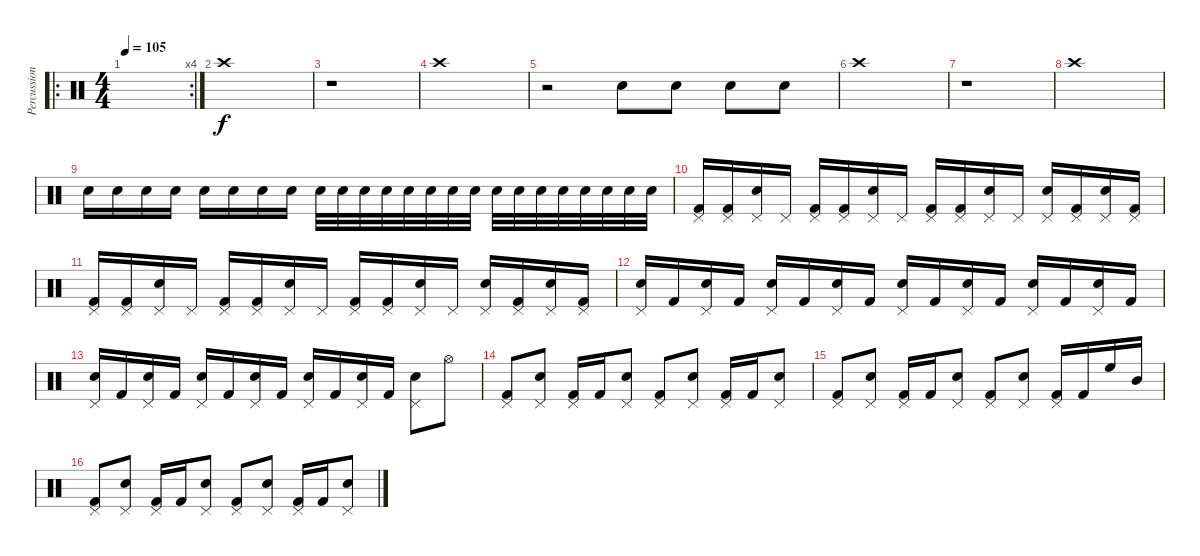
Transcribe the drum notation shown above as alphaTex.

\track ("Percussion" "Percussion") {instrument percussion}
\staff {score}
\articulation defaults
\ro
\rc 4
\ts (4 4)
\tempo 105
\clef neutral
\ks c
|
"Crash high (hit)".1 |
r.1 |
"Crash high (hit)".1 |
r.2 "Electric Snare (hit)".8 "Electric Snare (hit)".8 "Electric Snare (hit)".8 "Electric Snare (hit)".8 |
"Crash high (hit)".1 |
r.1 |
"Crash high (hit)".1 |
"Electric Snare (hit)".16 "Electric Snare (hit)".16 "Electric Snare (hit)".16 "Electric Snare (hit)".16 "Electric Snare (hit)".16 "Electric Snare (hit)".16 "Electric Snare (hit)".16 "Electric Snare (hit)".16 "Electric Snare (hit)".32 "Electric Snare (hit)".32 "Electric Snare (hit)".32 "Electric Snare (hit)".32 "Electric Snare (hit)".32 "Electric Snare (hit)".32 "Electric Snare (hit)".32 "Electric Snare (hit)".32 "Electric Snare (hit)".32 "Electric Snare (hit)".32 "Electric Snare (hit)".32 "Electric Snare (hit)".32 "Electric Snare (hit)".32 "Electric Snare (hit)".32 "Electric Snare (hit)".32 "Electric Snare (hit)".32 |
("Pedal Hi-Hat (hit)" "Kick (hit) 2").16 ("Pedal Hi-Hat (hit)" "Kick (hit) 2").16 ("Pedal Hi-Hat (hit)" "Electric Snare (hit)").16 "Pedal Hi-Hat (hit)".16 ("Pedal Hi-Hat (hit)" "Kick (hit) 2").16 ("Pedal Hi-Hat (hit)" "Kick (hit) 2").16 ("Pedal Hi-Hat (hit)" "Electric Snare (hit)").16 "Pedal Hi-Hat (hit)".16 ("Pedal Hi-Hat (hit)" "Kick (hit) 2").16 ("Pedal Hi-Hat (hit)" "Kick (hit) 2").16 ("Pedal Hi-Hat (hit)" "Electric Snare (hit)").16 "Pedal Hi-Hat (hit)".16 ("Pedal Hi-Hat (hit)" "Electric Snare (hit)").16 ("Pedal Hi-Hat (hit)" "Kick (hit) 2").16 ("Pedal Hi-Hat (hit)" "Electric Snare (hit)").16 ("Pedal Hi-Hat (hit)" "Kick (hit) 2").16 |
("Pedal Hi-Hat (hit)" "Kick (hit) 2").16 ("Pedal Hi-Hat (hit)" "Kick (hit) 2").16 ("Pedal Hi-Hat (hit)" "Electric Snare (hit)").16 "Pedal Hi-Hat (hit)".16 ("Pedal Hi-Hat (hit)" "Kick (hit) 2").16 ("Pedal Hi-Hat (hit)" "Kick (hit) 2").16 ("Pedal Hi-Hat (hit)" "Electric Snare (hit)").16 "Pedal Hi-Hat (hit)".16 ("Pedal Hi-Hat (hit)" "Kick (hit) 2").16 ("Pedal Hi-Hat (hit)" "Kick (hit) 2").16 ("Pedal Hi-Hat (hit)" "Electric Snare (hit)").16 "Pedal Hi-Hat (hit)".16 ("Pedal Hi-Hat (hit)" "Electric Snare (hit)").16 ("Pedal Hi-Hat (hit)" "Kick (hit) 2").16 ("Pedal Hi-Hat (hit)" "Electric Snare (hit)").16 ("Pedal Hi-Hat (hit)" "Kick (hit) 2").16 |
("Pedal Hi-Hat (hit)" "Electric Snare (hit)").16 "Kick (hit) 2".16 ("Pedal Hi-Hat (hit)" "Electric Snare (hit)").16 "Kick (hit) 2".16 ("Pedal Hi-Hat (hit)" "Electric Snare (hit)").16 "Kick (hit) 2".16 ("Pedal Hi-Hat (hit)" "Electric Snare (hit)").16 "Kick (hit) 2".16 ("Pedal Hi-Hat (hit)" "Electric Snare (hit)").16 "Kick (hit) 2".16 ("Pedal Hi-Hat (hit)" "Electric Snare (hit)").16 "Kick (hit) 2".16 ("Pedal Hi-Hat (hit)" "Electric Snare (hit)").16 "Kick (hit) 2".16 ("Pedal Hi-Hat (hit)" "Electric Snare (hit)").16 "Kick (hit) 2".16 |
("Pedal Hi-Hat (hit)" "Electric Snare (hit)").16 "Kick (hit) 2".16 ("Pedal Hi-Hat (hit)" "Electric Snare (hit)").16 "Kick (hit) 2".16 ("Pedal Hi-Hat (hit)" "Electric Snare (hit)").16 "Kick (hit) 2".16 ("Pedal Hi-Hat (hit)" "Electric Snare (hit)").16 "Kick (hit) 2".16 ("Pedal Hi-Hat (hit)" "Electric Snare (hit)").16 "Kick (hit) 2".16 ("Pedal Hi-Hat (hit)" "Electric Snare (hit)").16 "Kick (hit) 2".16 ("Pedal Hi-Hat (hit)" "Electric Snare (hit)").8 "Hi-Hat (open)".8 |
("Pedal Hi-Hat (hit)" "Kick (hit) 2").8 ("Pedal Hi-Hat (hit)" "Electric Snare (hit)").8 ("Pedal Hi-Hat (hit)" "Kick (hit) 2").16 "Kick (hit) 2".16 ("Pedal Hi-Hat (hit)" "Electric Snare (hit)").8 ("Pedal Hi-Hat (hit)" "Kick (hit) 2").8 ("Pedal Hi-Hat (hit)" "Electric Snare (hit)").8 ("Pedal Hi-Hat (hit)" "Kick (hit) 2").16 "Kick (hit) 2".16 ("Pedal Hi-Hat (hit)" "Electric Snare (hit)").8 |
("Pedal Hi-Hat (hit)" "Kick (hit) 2").8 ("Pedal Hi-Hat (hit)" "Electric Snare (hit)").8 ("Pedal Hi-Hat (hit)" "Kick (hit) 2").16 "Kick (hit) 2".16 ("Pedal Hi-Hat (hit)" "Electric Snare (hit)").8 ("Pedal Hi-Hat (hit)" "Kick (hit) 2").8 ("Pedal Hi-Hat (hit)" "Electric Snare (hit)").8 ("Pedal Hi-Hat (hit)" "Kick (hit) 2").16 "Kick (hit) 2".16 "High Floor Tom (hit)".16 "Mid Tom (hit)".16 |
("Pedal Hi-Hat (hit)" "Kick (hit) 2").8 ("Pedal Hi-Hat (hit)" "Electric Snare (hit)").8 ("Pedal Hi-Hat (hit)" "Kick (hit) 2").16 "Kick (hit) 2".16 ("Pedal Hi-Hat (hit)" "Electric Snare (hit)").8 ("Pedal Hi-Hat (hit)" "Kick (hit) 2").8 ("Pedal Hi-Hat (hit)" "Electric Snare (hit)").8 ("Pedal Hi-Hat (hit)" "Kick (hit) 2").16 "Kick (hit) 2".16 ("Pedal Hi-Hat (hit)" "Electric Snare (hit)").8
